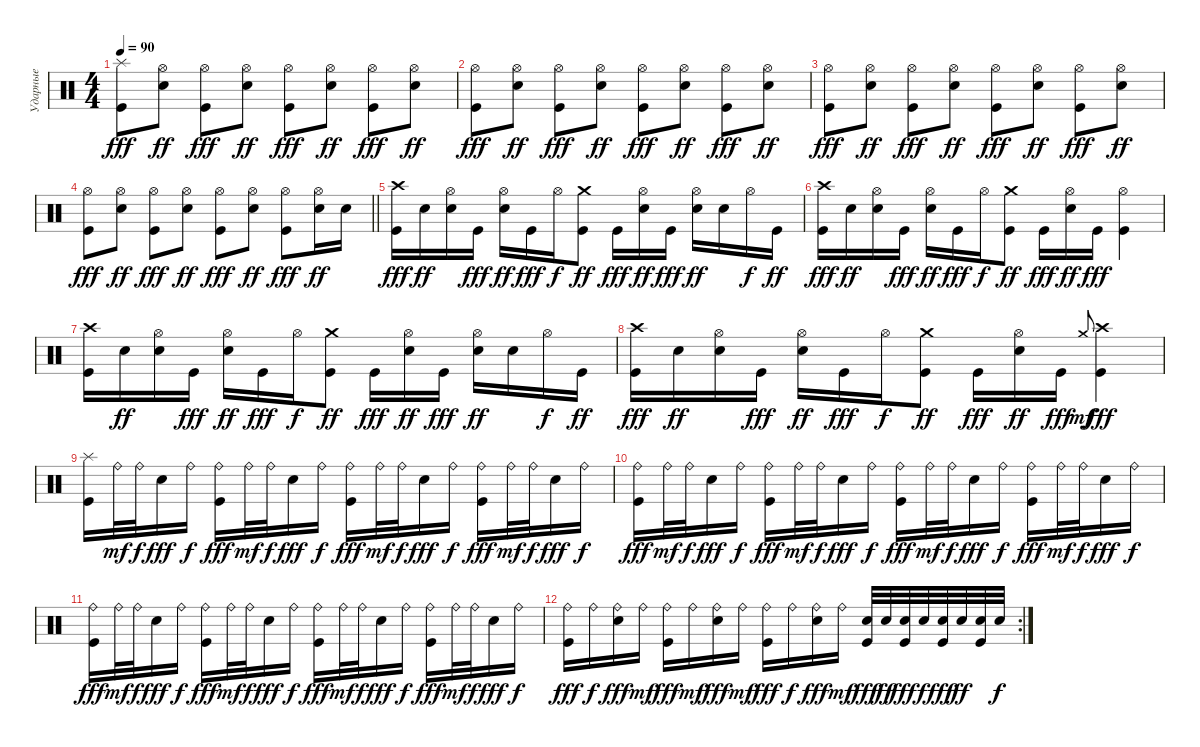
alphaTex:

\track ("Ударные" "Ударные") {instrument percussion}
\staff {score}
\articulation defaults
\ts (4 4)
\tempo 90
\clef neutral
\ks c
("Splash (hit)" "Kick (hit)").8{dy fff} ("Hi-Hat (open)" "Electric Snare (hit)").8{dy ff} ("Hi-Hat (open)" "Kick (hit)").8{dy fff} ("Hi-Hat (open)" "Electric Snare (hit)").8{dy ff} ("Hi-Hat (open)" "Kick (hit)").8{dy fff} ("Hi-Hat (open)" "Electric Snare (hit)").8{dy ff} ("Hi-Hat (open)" "Kick (hit)").8{dy fff} ("Hi-Hat (open)" "Electric Snare (hit)").8{dy ff} |
("Hi-Hat (open)" "Kick (hit)").8{dy fff} ("Hi-Hat (open)" "Electric Snare (hit)").8{dy ff} ("Hi-Hat (open)" "Kick (hit)").8{dy fff} ("Hi-Hat (open)" "Electric Snare (hit)").8{dy ff} ("Hi-Hat (open)" "Kick (hit)").8{dy fff} ("Hi-Hat (open)" "Electric Snare (hit)").8{dy ff} ("Hi-Hat (open)" "Kick (hit)").8{dy fff} ("Hi-Hat (open)" "Electric Snare (hit)").8{dy ff} |
("Hi-Hat (open)" "Kick (hit)").8{dy fff} ("Hi-Hat (open)" "Electric Snare (hit)").8{dy ff} ("Hi-Hat (open)" "Kick (hit)").8{dy fff} ("Hi-Hat (open)" "Electric Snare (hit)").8{dy ff} ("Hi-Hat (open)" "Kick (hit)").8{dy fff} ("Hi-Hat (open)" "Electric Snare (hit)").8{dy ff} ("Hi-Hat (open)" "Kick (hit)").8{dy fff} ("Hi-Hat (open)" "Electric Snare (hit)").8{dy ff} |
\barLineRight lightlight
("Hi-Hat (open)" "Kick (hit)").8{dy fff} ("Hi-Hat (open)" "Electric Snare (hit)").8{dy ff} ("Hi-Hat (open)" "Kick (hit)").8{dy fff} ("Hi-Hat (open)" "Electric Snare (hit)").8{dy ff} ("Hi-Hat (open)" "Kick (hit)").8{dy fff} ("Hi-Hat (open)" "Electric Snare (hit)").8{dy ff} ("Hi-Hat (open)" "Kick (hit)").8{dy fff} ("Hi-Hat (open)" "Electric Snare (hit)").16{dy ff} "Electric Snare (hit)".16 |
("Crash high (hit)" "Kick (hit)").16{dy fff} "Electric Snare (hit)".16{dy ff} ("Hi-Hat (open)" "Electric Snare (hit)").16 "Kick (hit)".16{dy fff} ("Hi-Hat (open)" "Electric Snare (hit)").16{dy ff} "Kick (hit)".16{dy fff} "Hi-Hat (open)".16{dy f} ("Crash medium (hit)" "Kick (hit)").8{dy ff} "Kick (hit)".16{dy fff} ("Hi-Hat (open)" "Electric Snare (hit)").16{dy ff} "Kick (hit)".16{dy fff} ("Hi-Hat (open)" "Electric Snare (hit)").16{dy ff} "Electric Snare (hit)".16 "Hi-Hat (open)".16{dy f} "Kick (hit)".16{dy ff} |
("Crash high (hit)" "Kick (hit)").16{dy fff} "Electric Snare (hit)".16{dy ff} ("Hi-Hat (open)" "Electric Snare (hit)").16 "Kick (hit)".16{dy fff} ("Hi-Hat (open)" "Electric Snare (hit)").16{dy ff} "Kick (hit)".16{dy fff} "Hi-Hat (open)".16{dy f} ("Crash medium (hit)" "Kick (hit)").8{dy ff} "Kick (hit)".16{dy fff} ("Hi-Hat (open)" "Electric Snare (hit)").16{dy ff} "Kick (hit)".16{dy fff} ("Hi-Hat (open)" "Kick (hit)").4 |
("Crash high (hit)" "Kick (hit)").16 "Electric Snare (hit)".16{dy ff} ("Hi-Hat (open)" "Electric Snare (hit)").16 "Kick (hit)".16{dy fff} ("Hi-Hat (open)" "Electric Snare (hit)").16{dy ff} "Kick (hit)".16{dy fff} "Hi-Hat (open)".16{dy f} ("Crash medium (hit)" "Kick (hit)").8{dy ff} "Kick (hit)".16{dy fff} ("Hi-Hat (open)" "Electric Snare (hit)").16{dy ff} "Kick (hit)".16{dy fff} ("Hi-Hat (open)" "Electric Snare (hit)").16{dy ff} "Electric Snare (hit)".16 "Hi-Hat (open)".16{dy f} "Kick (hit)".16{dy ff} |
("Crash high (hit)" "Kick (hit)").16{dy fff} "Electric Snare (hit)".16{dy ff} ("Hi-Hat (open)" "Electric Snare (hit)").16 "Kick (hit)".16{dy fff} ("Hi-Hat (open)" "Electric Snare (hit)").16{dy ff} "Kick (hit)".16{dy fff} "Hi-Hat (open)".16{dy f} ("Crash medium (hit)" "Kick (hit)").8{dy ff} "Kick (hit)".16{dy fff} ("Hi-Hat (open)" "Electric Snare (hit)").16{dy ff} "Kick (hit)".16{dy fff} "Crash medium (hit)".8{gr onbeat dy mf} ("Crash high (hit)" "Kick (hit)").4{dy fff} |
("Splash (hit)" "Kick (hit)").16 "Ride (bell)".32{dy mf} "Ride (bell)".32{dy f} "Electric Snare (hit)".16{dy fff} "Ride (bell)".16{dy f} ("Ride (bell)" "Kick (hit)").16{dy fff} "Ride (bell)".32{dy mf} "Ride (bell)".32{dy f} "Electric Snare (hit)".16{dy fff} "Ride (bell)".16{dy f} ("Ride (bell)" "Kick (hit)").16{dy fff} "Ride (bell)".32{dy mf} "Ride (bell)".32{dy f} "Electric Snare (hit)".16{dy fff} "Ride (bell)".16{dy f} ("Ride (bell)" "Kick (hit)").16{dy fff} "Ride (bell)".32{dy mf} "Ride (bell)".32{dy f} "Electric Snare (hit)".16{dy fff} "Ride (bell)".16{dy f} |
("Ride (bell)" "Kick (hit)").16{dy fff} "Ride (bell)".32{dy mf} "Ride (bell)".32{dy f} "Electric Snare (hit)".16{dy fff} "Ride (bell)".16{dy f} ("Ride (bell)" "Kick (hit)").16{dy fff} "Ride (bell)".32{dy mf} "Ride (bell)".32{dy f} "Electric Snare (hit)".16{dy fff} "Ride (bell)".16{dy f} ("Ride (bell)" "Kick (hit)").16{dy fff} "Ride (bell)".32{dy mf} "Ride (bell)".32{dy f} "Electric Snare (hit)".16{dy fff} "Ride (bell)".16{dy f} ("Ride (bell)" "Kick (hit)").16{dy fff} "Ride (bell)".32{dy mf} "Ride (bell)".32{dy f} "Electric Snare (hit)".16{dy fff} "Ride (bell)".16{dy f} |
("Ride (bell)" "Kick (hit)").16{dy fff} "Ride (bell)".32{dy mf} "Ride (bell)".32{dy f} "Electric Snare (hit)".16{dy fff} "Ride (bell)".16{dy f} ("Ride (bell)" "Kick (hit)").16{dy fff} "Ride (bell)".32{dy mf} "Ride (bell)".32{dy f} "Electric Snare (hit)".16{dy fff} "Ride (bell)".16{dy f} ("Ride (bell)" "Kick (hit)").16{dy fff} "Ride (bell)".32{dy mf} "Ride (bell)".32{dy f} "Electric Snare (hit)".16{dy fff} "Ride (bell)".16{dy f} ("Ride (bell)" "Kick (hit)").16{dy fff} "Ride (bell)".32{dy mf} "Ride (bell)".32{dy f} "Electric Snare (hit)".16{dy fff} "Ride (bell)".16{dy f} |
\rc 2
("Ride (bell)" "Kick (hit)").16{dy fff} "Ride (bell)".16{dy f} ("Ride (bell)" "Electric Snare (hit)").16{dy fff} "Ride (bell)".16{dy mf} ("Ride (bell)" "Kick (hit)").16{dy fff} "Ride (bell)".16{dy mf} ("Ride (bell)" "Electric Snare (hit)").16{dy fff} "Ride (bell)".16{dy mf} ("Ride (bell)" "Kick (hit)").16{dy fff} "Ride (bell)".16{dy f} ("Ride (bell)" "Electric Snare (hit)").16{dy fff} "Ride (bell)".16{dy mf} ("Electric Snare (hit)" "Kick (hit)").32{dy fff} "Electric Snare (hit)".32{dy ff} ("Electric Snare (hit)" "Kick (hit)").32{dy fff} "Electric Snare (hit)".32{dy f} ("Electric Snare (hit)" "Kick (hit)").32{dy fff} "Electric Snare (hit)".32{dy ff} ("Electric Snare (hit)" "Kick (hit)").32 "Electric Snare (hit)".32{dy f}
